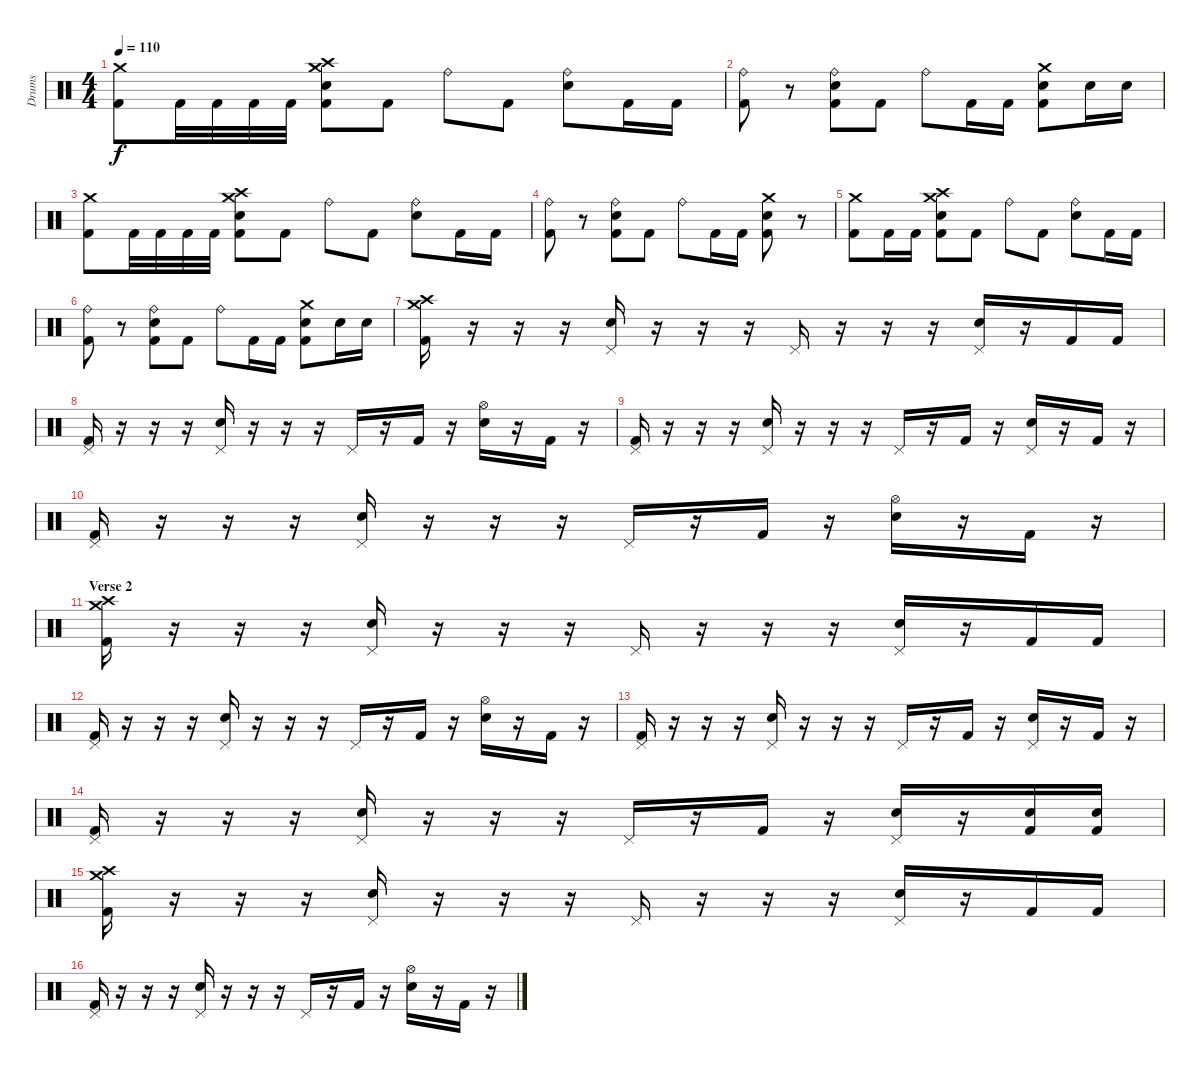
\track ("Drums" "Drums") {instrument percussion}
\staff {score}
\articulation defaults
\ts (4 4)
\tempo 110
\clef neutral
\ks c
("Crash medium (hit)" "Kick (hit) 2").8{dy f} "Kick (hit) 2".32 "Kick (hit) 2".32 "Kick (hit) 2".32 "Kick (hit) 2".32 ("Crash high (hit)" "Crash medium (hit)" "Electric Snare (hit)" "Kick (hit) 2").8 "Kick (hit) 2".8 "Ride (bell)".8 "Kick (hit) 2".8 ("Ride (bell)" "Electric Snare (hit)").8 "Kick (hit) 2".16 "Kick (hit) 2".16 |
("Ride (bell)" "Kick (hit) 2").8 r.8 ("Ride (bell)" "Electric Snare (hit)" "Kick (hit) 2").8 "Kick (hit) 2".8 "Ride (bell)".8 "Kick (hit) 2".16 "Kick (hit) 2".16 ("Crash medium (hit)" "Electric Snare (hit)" "Kick (hit) 2").8 "Electric Snare (hit)".16 "Electric Snare (hit)".16 |
("Crash medium (hit)" "Kick (hit) 2").8 "Kick (hit) 2".32 "Kick (hit) 2".32 "Kick (hit) 2".32 "Kick (hit) 2".32 ("Crash high (hit)" "Crash medium (hit)" "Electric Snare (hit)" "Kick (hit) 2").8 "Kick (hit) 2".8 "Ride (bell)".8 "Kick (hit) 2".8 ("Ride (bell)" "Electric Snare (hit)").8 "Kick (hit) 2".16 "Kick (hit) 2".16 |
("Ride (bell)" "Kick (hit) 2").8 r.8 ("Ride (bell)" "Electric Snare (hit)" "Kick (hit) 2").8 "Kick (hit) 2".8 "Ride (bell)".8 "Kick (hit) 2".16 "Kick (hit) 2".16 ("Crash medium (hit)" "Electric Snare (hit)" "Kick (hit) 2").8 r.8 |
("Crash medium (hit)" "Kick (hit) 2").8 "Kick (hit) 2".16 "Kick (hit) 2".16 ("Crash high (hit)" "Crash medium (hit)" "Electric Snare (hit)" "Kick (hit) 2").8 "Kick (hit) 2".8 "Ride (bell)".8 "Kick (hit) 2".8 ("Ride (bell)" "Electric Snare (hit)").8 "Kick (hit) 2".16 "Kick (hit) 2".16 |
("Ride (bell)" "Kick (hit) 2").8 r.8 ("Ride (bell)" "Electric Snare (hit)" "Kick (hit) 2").8 "Kick (hit) 2".8 "Ride (bell)".8 "Kick (hit) 2".16 "Kick (hit) 2".16 ("Crash medium (hit)" "Electric Snare (hit)" "Kick (hit) 2").8 "Electric Snare (hit)".16 "Electric Snare (hit)".16 |
("Crash high (hit)" "Crash medium (hit)" "Kick (hit) 2").16 r.16 r.16 r.16 ("Pedal Hi-Hat (hit)" "Electric Snare (hit)").16 r.16 r.16 r.16 "Pedal Hi-Hat (hit)".16 r.16 r.16 r.16 ("Pedal Hi-Hat (hit)" "Electric Snare (hit)").16 r.16 "Kick (hit) 2".16 "Kick (hit) 2".16 |
("Pedal Hi-Hat (hit)" "Kick (hit) 2").16 r.16 r.16 r.16 ("Pedal Hi-Hat (hit)" "Electric Snare (hit)").16 r.16 r.16 r.16 "Pedal Hi-Hat (hit)".16 r.16 "Kick (hit) 2".16 r.16 ("Hi-Hat (open)" "Electric Snare (hit)").16 r.16 "Kick (hit) 2".16 r.16 |
("Pedal Hi-Hat (hit)" "Kick (hit) 2").16 r.16 r.16 r.16 ("Pedal Hi-Hat (hit)" "Electric Snare (hit)").16 r.16 r.16 r.16 "Pedal Hi-Hat (hit)".16 r.16 "Kick (hit) 2".16 r.16 ("Pedal Hi-Hat (hit)" "Electric Snare (hit)").16 r.16 "Kick (hit) 2".16 r.16 |
("Pedal Hi-Hat (hit)" "Kick (hit) 2").16 r.16 r.16 r.16 ("Pedal Hi-Hat (hit)" "Electric Snare (hit)").16 r.16 r.16 r.16 "Pedal Hi-Hat (hit)".16 r.16 "Kick (hit) 2".16 r.16 ("Hi-Hat (open)" "Electric Snare (hit)").16 r.16 "Kick (hit) 2".16 r.16 |
\section ("" "Verse 2")
("Crash high (hit)" "Crash medium (hit)" "Kick (hit) 2").16 r.16 r.16 r.16 ("Pedal Hi-Hat (hit)" "Electric Snare (hit)").16 r.16 r.16 r.16 "Pedal Hi-Hat (hit)".16 r.16 r.16 r.16 ("Pedal Hi-Hat (hit)" "Electric Snare (hit)").16 r.16 "Kick (hit) 2".16 "Kick (hit) 2".16 |
("Pedal Hi-Hat (hit)" "Kick (hit) 2").16 r.16 r.16 r.16 ("Pedal Hi-Hat (hit)" "Electric Snare (hit)").16 r.16 r.16 r.16 "Pedal Hi-Hat (hit)".16 r.16 "Kick (hit) 2".16 r.16 ("Hi-Hat (open)" "Electric Snare (hit)").16 r.16 "Kick (hit) 2".16 r.16 |
("Pedal Hi-Hat (hit)" "Kick (hit) 2").16 r.16 r.16 r.16 ("Pedal Hi-Hat (hit)" "Electric Snare (hit)").16 r.16 r.16 r.16 "Pedal Hi-Hat (hit)".16 r.16 "Kick (hit) 2".16 r.16 ("Pedal Hi-Hat (hit)" "Electric Snare (hit)").16 r.16 "Kick (hit) 2".16 r.16 |
("Pedal Hi-Hat (hit)" "Kick (hit) 2").16 r.16 r.16 r.16 ("Pedal Hi-Hat (hit)" "Electric Snare (hit)").16 r.16 r.16 r.16 "Pedal Hi-Hat (hit)".16 r.16 "Kick (hit) 2".16 r.16 ("Pedal Hi-Hat (hit)" "Electric Snare (hit)").16 r.16 ("Electric Snare (hit)" "Kick (hit) 2").16 ("Electric Snare (hit)" "Kick (hit) 2").16 |
("Crash high (hit)" "Crash medium (hit)" "Kick (hit) 2").16 r.16 r.16 r.16 ("Pedal Hi-Hat (hit)" "Electric Snare (hit)").16 r.16 r.16 r.16 "Pedal Hi-Hat (hit)".16 r.16 r.16 r.16 ("Pedal Hi-Hat (hit)" "Electric Snare (hit)").16 r.16 "Kick (hit) 2".16 "Kick (hit) 2".16 |
("Pedal Hi-Hat (hit)" "Kick (hit) 2").16 r.16 r.16 r.16 ("Pedal Hi-Hat (hit)" "Electric Snare (hit)").16 r.16 r.16 r.16 "Pedal Hi-Hat (hit)".16 r.16 "Kick (hit) 2".16 r.16 ("Hi-Hat (open)" "Electric Snare (hit)").16 r.16 "Kick (hit) 2".16 r.16
